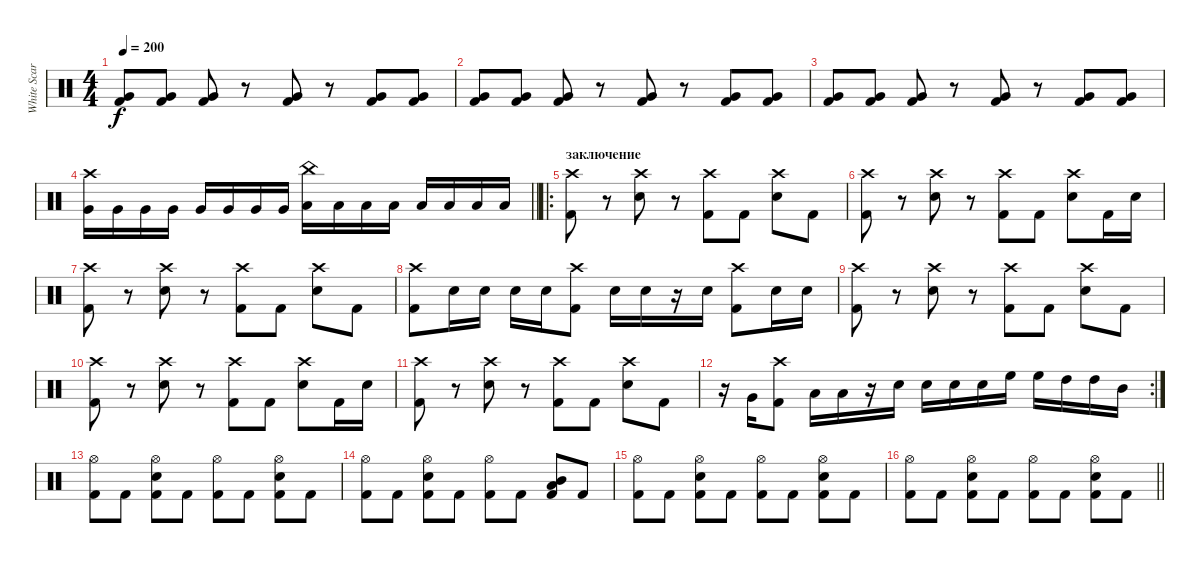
\track ("White Scar" "White Scar") {instrument percussion}
\staff {score}
\articulation defaults
\ts (4 4)
\tempo 200
\clef neutral
\ks c
("Kick (hit) 2" "Very Low Tom (hit)").8{dy f} ("Kick (hit) 2" "Very Low Tom (hit)").8 ("Kick (hit) 2" "Very Low Tom (hit)").8 r.8 ("Kick (hit) 2" "Very Low Tom (hit)").8 r.8 ("Kick (hit) 2" "Very Low Tom (hit)").8 ("Kick (hit) 2" "Very Low Tom (hit)").8 |
("Kick (hit) 2" "Very Low Tom (hit)").8 ("Kick (hit) 2" "Very Low Tom (hit)").8 ("Kick (hit) 2" "Very Low Tom (hit)").8 r.8 ("Kick (hit) 2" "Very Low Tom (hit)").8 r.8 ("Kick (hit) 2" "Very Low Tom (hit)").8 ("Kick (hit) 2" "Very Low Tom (hit)").8 |
("Kick (hit) 2" "Very Low Tom (hit)").8 ("Kick (hit) 2" "Very Low Tom (hit)").8 ("Kick (hit) 2" "Very Low Tom (hit)").8 r.8 ("Kick (hit) 2" "Very Low Tom (hit)").8 r.8 ("Kick (hit) 2" "Very Low Tom (hit)").8 ("Kick (hit) 2" "Very Low Tom (hit)").8 |
\barLineRight lightlight
("Very Low Tom (hit)" "Crash high (hit)").16 "Very Low Tom (hit)".16 "Very Low Tom (hit)".16 "Very Low Tom (hit)".16 "Very Low Tom (hit)".16 "Very Low Tom (hit)".16 "Very Low Tom (hit)".16 "Very Low Tom (hit)".16 ("Low Floor Tom (hit)" "China (hit)").16 "Low Floor Tom (hit)".16 "Low Floor Tom (hit)".16 "Low Floor Tom (hit)".16 "Low Floor Tom (hit)".16 "Low Floor Tom (hit)".16 "Low Floor Tom (hit)".16 "Low Floor Tom (hit)".16 |
\ro
\section ("" "заключение")
("Crash high (hit)" "Kick (hit) 2").8 r.8 ("Crash high (hit)" "Snare (hit) 2").8 r.8 ("Crash high (hit)" "Kick (hit) 2").8 "Kick (hit) 2".8 ("Crash high (hit)" "Snare (hit) 2").8 "Kick (hit) 2".8 |
("Crash high (hit)" "Kick (hit) 2").8 r.8 ("Crash high (hit)" "Snare (hit) 2").8 r.8 ("Crash high (hit)" "Kick (hit) 2").8 "Kick (hit) 2".8 ("Crash high (hit)" "Snare (hit) 2").8 "Kick (hit) 2".16 "Snare (hit) 2".16 |
("Crash high (hit)" "Kick (hit) 2").8 r.8 ("Crash high (hit)" "Snare (hit) 2").8 r.8 ("Crash high (hit)" "Kick (hit) 2").8 "Kick (hit) 2".8 ("Crash high (hit)" "Snare (hit) 2").8 "Kick (hit) 2".8 |
("Crash high (hit)" "Kick (hit) 2").8 "Snare (hit) 2".16 "Snare (hit) 2".16 "Snare (hit) 2".16 "Snare (hit) 2".16 ("Crash high (hit)" "Kick (hit) 2").8 "Snare (hit) 2".16 "Snare (hit) 2".16 r.16 "Snare (hit) 2".16 ("Crash high (hit)" "Kick (hit) 2").8 "Snare (hit) 2".16 "Snare (hit) 2".16 |
("Crash high (hit)" "Kick (hit) 2").8 r.8 ("Crash high (hit)" "Snare (hit) 2").8 r.8 ("Crash high (hit)" "Kick (hit) 2").8 "Kick (hit) 2".8 ("Crash high (hit)" "Snare (hit) 2").8 "Kick (hit) 2".8 |
("Crash high (hit)" "Kick (hit) 2").8 r.8 ("Crash high (hit)" "Snare (hit) 2").8 r.8 ("Crash high (hit)" "Kick (hit) 2").8 "Kick (hit) 2".8 ("Crash high (hit)" "Snare (hit) 2").8 "Kick (hit) 2".16 "Snare (hit) 2".16 |
("Crash high (hit)" "Kick (hit) 2").8 r.8 ("Crash high (hit)" "Snare (hit) 2").8 r.8 ("Crash high (hit)" "Kick (hit) 2").8 "Kick (hit) 2".8 ("Crash high (hit)" "Snare (hit) 2").8 "Kick (hit) 2".8 |
\rc 2
r.16 "Very Low Tom (hit)".16 ("Crash high (hit)" "Kick (hit) 2").8 "Low Tom (hit)".16 "Low Tom (hit)".16 r.16 "Snare (hit) 2".16 "Snare (hit) 2".16 "Snare (hit) 2".16 "Snare (hit) 2".16 "High Floor Tom (hit)".16 "High Floor Tom (hit)".16 "High Tom (hit)".16 "High Tom (hit)".16 "Mid Tom (hit)".16 |
("Hi-Hat (open)" "Kick (hit) 2").8 "Kick (hit) 2".8 ("Snare (hit) 2" "Hi-Hat (open)" "Kick (hit) 2").8 "Kick (hit) 2".8 ("Hi-Hat (open)" "Kick (hit) 2").8 "Kick (hit) 2".8 ("Snare (hit) 2" "Hi-Hat (open)" "Kick (hit) 2").8 "Kick (hit) 2".8 |
("Hi-Hat (open)" "Kick (hit) 2").8 "Kick (hit) 2".8 ("Snare (hit) 2" "Hi-Hat (open)" "Kick (hit) 2").8 "Kick (hit) 2".8 ("Hi-Hat (open)" "Kick (hit) 2").8 "Kick (hit) 2".8 ("Low Tom (hit)" "Mid Tom (hit)" "Kick (hit) 2").8 "Kick (hit) 2".8 |
("Hi-Hat (open)" "Kick (hit) 2").8 "Kick (hit) 2".8 ("Snare (hit) 2" "Hi-Hat (open)" "Kick (hit) 2").8 "Kick (hit) 2".8 ("Hi-Hat (open)" "Kick (hit) 2").8 "Kick (hit) 2".8 ("Snare (hit) 2" "Hi-Hat (open)" "Kick (hit) 2").8 "Kick (hit) 2".8 |
\barLineRight lightlight
("Hi-Hat (open)" "Kick (hit) 2").8 "Kick (hit) 2".8 ("Snare (hit) 2" "Hi-Hat (open)" "Kick (hit) 2").8 "Kick (hit) 2".8 ("Hi-Hat (open)" "Kick (hit) 2").8 "Kick (hit) 2".8 ("Snare (hit) 2" "Hi-Hat (open)" "Kick (hit) 2").8 "Kick (hit) 2".8
